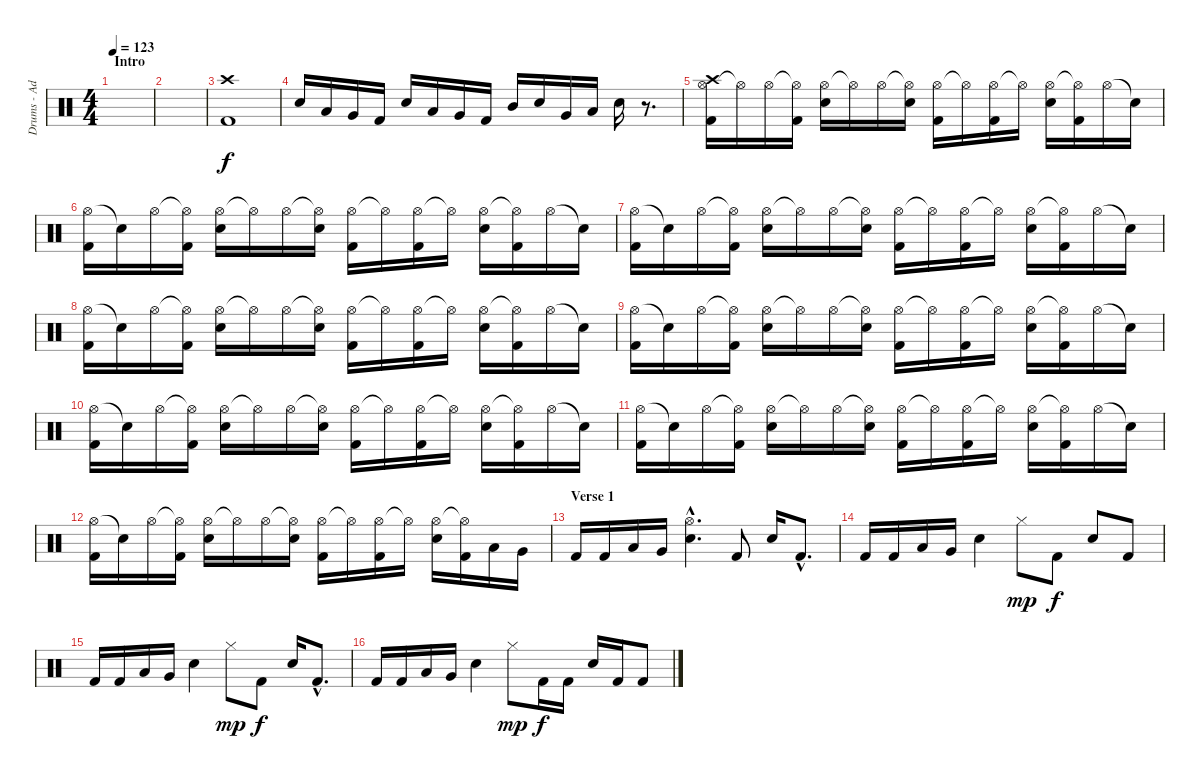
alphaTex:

\track ("Drums - Adam" "Drums - Ad") {instrument percussion}
\staff {score}
\articulation defaults
\ts (4 4)
\section ("" "Intro")
\tempo 123
\clef neutral
\ks c
|
|
("Kick (hit) 2" "Crash high (hit)").1 |
"Electric Snare (hit)".16 "Low Tom (hit)".16 "Very Low Tom (hit)".16 "Kick (hit) 2".16 "Electric Snare (hit)".16 "Low Tom (hit)".16 "Very Low Tom (hit)".16 "Kick (hit) 2".16 "Mid Tom (hit)".16 "Electric Snare (hit)".16 "Very Low Tom (hit)".16 "Low Tom (hit)".16 "Electric Snare (hit)".16 r.8{d} |
("Hi-Hat (open)" "Kick (hit) 2" "Crash high (hit)").16 "Hi-Hat (open)"{t}.16 "Hi-Hat (open)".16 ("Hi-Hat (open)"{t} "Kick (hit) 2").16 ("Hi-Hat (open)" "Electric Snare (hit)").16 "Hi-Hat (open)"{t}.16 "Hi-Hat (open)".16 ("Hi-Hat (open)"{t} "Electric Snare (hit)").16 ("Hi-Hat (open)" "Kick (hit) 2").16 "Hi-Hat (open)"{t}.16 ("Hi-Hat (open)" "Kick (hit) 2").16 "Hi-Hat (open)"{t}.16 ("Hi-Hat (open)" "Electric Snare (hit)").16 ("Hi-Hat (open)"{t} "Kick (hit) 2").16 "Hi-Hat (open)".16 "Snare (hit)"{t}.16 |
("Hi-Hat (open)" "Kick (hit) 2").16 "Snare (hit)"{t}.16 "Hi-Hat (open)".16 ("Hi-Hat (open)"{t} "Kick (hit) 2").16 ("Hi-Hat (open)" "Electric Snare (hit)").16 "Hi-Hat (open)"{t}.16 "Hi-Hat (open)".16 ("Hi-Hat (open)"{t} "Electric Snare (hit)").16 ("Hi-Hat (open)" "Kick (hit) 2").16 "Hi-Hat (open)"{t}.16 ("Hi-Hat (open)" "Kick (hit) 2").16 "Hi-Hat (open)"{t}.16 ("Hi-Hat (open)" "Electric Snare (hit)").16 ("Hi-Hat (open)"{t} "Kick (hit) 2").16 "Hi-Hat (open)".16 "Snare (hit)"{t}.16 |
("Hi-Hat (open)" "Kick (hit) 2").16 "Snare (hit)"{t}.16 "Hi-Hat (open)".16 ("Hi-Hat (open)"{t} "Kick (hit) 2").16 ("Hi-Hat (open)" "Electric Snare (hit)").16 "Hi-Hat (open)"{t}.16 "Hi-Hat (open)".16 ("Hi-Hat (open)"{t} "Electric Snare (hit)").16 ("Hi-Hat (open)" "Kick (hit) 2").16 "Hi-Hat (open)"{t}.16 ("Hi-Hat (open)" "Kick (hit) 2").16 "Hi-Hat (open)"{t}.16 ("Hi-Hat (open)" "Electric Snare (hit)").16 ("Hi-Hat (open)"{t} "Kick (hit) 2").16 "Hi-Hat (open)".16 "Snare (hit)"{t}.16 |
("Hi-Hat (open)" "Kick (hit) 2").16 "Snare (hit)"{t}.16 "Hi-Hat (open)".16 ("Hi-Hat (open)"{t} "Kick (hit) 2").16 ("Hi-Hat (open)" "Electric Snare (hit)").16 "Hi-Hat (open)"{t}.16 "Hi-Hat (open)".16 ("Hi-Hat (open)"{t} "Electric Snare (hit)").16 ("Hi-Hat (open)" "Kick (hit) 2").16 "Hi-Hat (open)"{t}.16 ("Hi-Hat (open)" "Kick (hit) 2").16 "Hi-Hat (open)"{t}.16 ("Hi-Hat (open)" "Electric Snare (hit)").16 ("Hi-Hat (open)"{t} "Kick (hit) 2").16 "Hi-Hat (open)".16 "Snare (hit)"{t}.16 |
("Hi-Hat (open)" "Kick (hit) 2").16 "Snare (hit)"{t}.16 "Hi-Hat (open)".16 ("Hi-Hat (open)"{t} "Kick (hit) 2").16 ("Hi-Hat (open)" "Electric Snare (hit)").16 "Hi-Hat (open)"{t}.16 "Hi-Hat (open)".16 ("Hi-Hat (open)"{t} "Electric Snare (hit)").16 ("Hi-Hat (open)" "Kick (hit) 2").16 "Hi-Hat (open)"{t}.16 ("Hi-Hat (open)" "Kick (hit) 2").16 "Hi-Hat (open)"{t}.16 ("Hi-Hat (open)" "Electric Snare (hit)").16 ("Hi-Hat (open)"{t} "Kick (hit) 2").16 "Hi-Hat (open)".16 "Snare (hit)"{t}.16 |
("Hi-Hat (open)" "Kick (hit) 2").16 "Snare (hit)"{t}.16 "Hi-Hat (open)".16 ("Hi-Hat (open)"{t} "Kick (hit) 2").16 ("Hi-Hat (open)" "Electric Snare (hit)").16 "Hi-Hat (open)"{t}.16 "Hi-Hat (open)".16 ("Hi-Hat (open)"{t} "Electric Snare (hit)").16 ("Hi-Hat (open)" "Kick (hit) 2").16 "Hi-Hat (open)"{t}.16 ("Hi-Hat (open)" "Kick (hit) 2").16 "Hi-Hat (open)"{t}.16 ("Hi-Hat (open)" "Electric Snare (hit)").16 ("Hi-Hat (open)"{t} "Kick (hit) 2").16 "Hi-Hat (open)".16 "Snare (hit)"{t}.16 |
("Hi-Hat (open)" "Kick (hit) 2").16 "Snare (hit)"{t}.16 "Hi-Hat (open)".16 ("Hi-Hat (open)"{t} "Kick (hit) 2").16 ("Hi-Hat (open)" "Electric Snare (hit)").16 "Hi-Hat (open)"{t}.16 "Hi-Hat (open)".16 ("Hi-Hat (open)"{t} "Electric Snare (hit)").16 ("Hi-Hat (open)" "Kick (hit) 2").16 "Hi-Hat (open)"{t}.16 ("Hi-Hat (open)" "Kick (hit) 2").16 "Hi-Hat (open)"{t}.16 ("Hi-Hat (open)" "Electric Snare (hit)").16 ("Hi-Hat (open)"{t} "Kick (hit) 2").16 "Hi-Hat (open)".16 "Snare (hit)"{t}.16 |
("Hi-Hat (open)" "Kick (hit) 2").16 "Snare (hit)"{t}.16 "Hi-Hat (open)".16 ("Hi-Hat (open)"{t} "Kick (hit) 2").16 ("Hi-Hat (open)" "Electric Snare (hit)").16 "Hi-Hat (open)"{t}.16 "Hi-Hat (open)".16 ("Hi-Hat (open)"{t} "Electric Snare (hit)").16 ("Hi-Hat (open)" "Kick (hit) 2").16 "Hi-Hat (open)"{t}.16 ("Hi-Hat (open)" "Kick (hit) 2").16 "Hi-Hat (open)"{t}.16 ("Hi-Hat (open)" "Electric Snare (hit)").16 ("Hi-Hat (open)"{t} "Kick (hit) 2").16 "Low Tom (hit)".16 "Very Low Tom (hit)".16 |
\section ("" "Verse 1")
"Kick (hit) 2".16 "Kick (hit) 2".16 "Low Tom (hit)".16 "Very Low Tom (hit)".16 ("Hi-Hat (open)"{hac} "Electric Snare (hit)"{hac}).4{d} "Kick (hit) 2".8 "Electric Snare (hit)".16 "Kick (hit) 2"{hac}.8{d} |
"Kick (hit) 2".16 "Kick (hit) 2".16 "Low Tom (hit)".16 "Very Low Tom (hit)".16 "Electric Snare (hit)".4 "Hi-Hat (closed)".8{dy mp} "Kick (hit) 2".8{dy f} "Electric Snare (hit)".8 "Kick (hit) 2".8 |
"Kick (hit) 2".16 "Kick (hit) 2".16 "Low Tom (hit)".16 "Very Low Tom (hit)".16 "Electric Snare (hit)".4 "Hi-Hat (closed)".8{dy mp} "Kick (hit) 2".8{dy f} "Electric Snare (hit)".16 "Kick (hit) 2"{hac}.8{d} |
"Kick (hit) 2".16 "Kick (hit) 2".16 "Low Tom (hit)".16 "Very Low Tom (hit)".16 "Electric Snare (hit)".4 "Hi-Hat (closed)".8{dy mp} "Kick (hit) 2".16{dy f} "Kick (hit) 2".16 "Electric Snare (hit)".16 "Kick (hit) 2".16 "Kick (hit) 2".8
